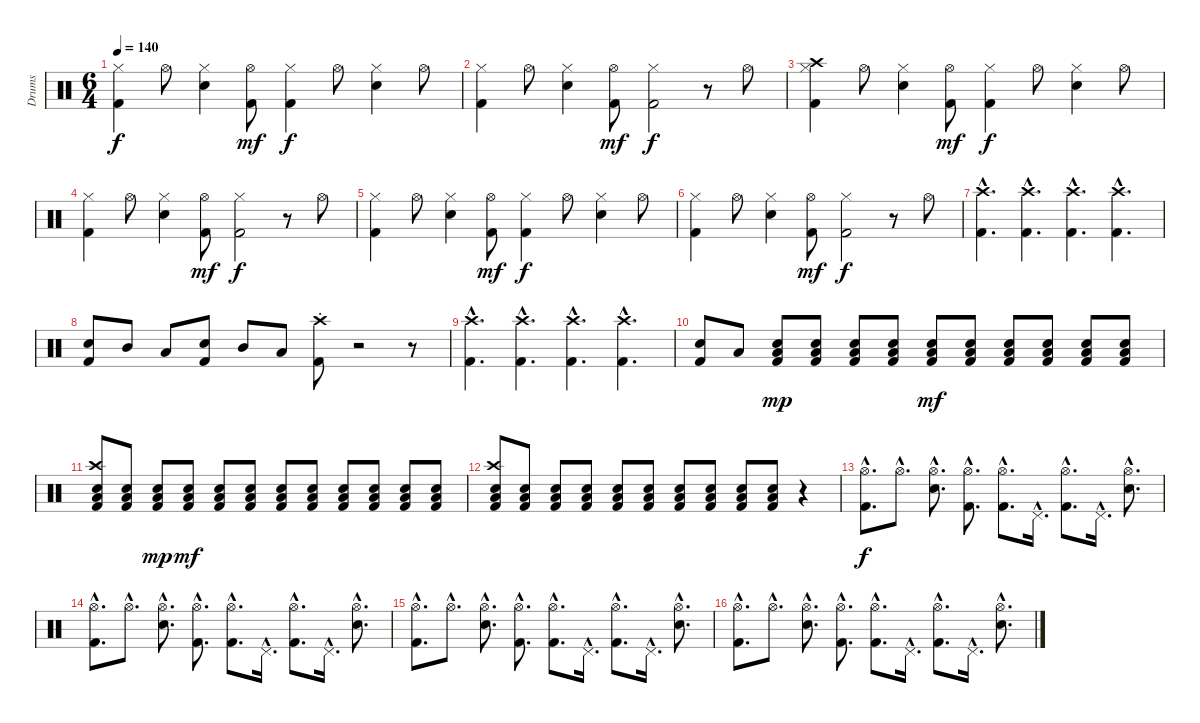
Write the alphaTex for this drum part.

\track ("Drums" "Drums") {instrument percussion}
\staff {score}
\articulation defaults
\ts (6 4)
\tempo 140
\clef neutral
\ks c
("Hi-Hat (closed)" "Kick (hit) 2").4{dy f} "Hi-Hat (open)".8 ("Hi-Hat (closed)" "Snare (hit) 2").4 ("Hi-Hat (open)" "Kick (hit) 2").8{dy mf} ("Hi-Hat (closed)" "Kick (hit) 2").4{dy f} "Hi-Hat (open)".8 ("Hi-Hat (closed)" "Snare (hit) 2").4 "Hi-Hat (open)".8 |
("Hi-Hat (closed)" "Kick (hit) 2").4 "Hi-Hat (open)".8 ("Hi-Hat (closed)" "Snare (hit) 2").4 ("Hi-Hat (open)" "Kick (hit) 2").8{dy mf} ("Hi-Hat (closed)" "Kick (hit) 2").2{dy f} r.8 "Hi-Hat (open)".8 |
("Crash high (hit)" "Hi-Hat (closed)" "Kick (hit) 2").4 "Hi-Hat (open)".8 ("Hi-Hat (closed)" "Snare (hit) 2").4 ("Hi-Hat (open)" "Kick (hit) 2").8{dy mf} ("Hi-Hat (closed)" "Kick (hit) 2").4{dy f} "Hi-Hat (open)".8 ("Hi-Hat (closed)" "Snare (hit) 2").4 "Hi-Hat (open)".8 |
("Hi-Hat (closed)" "Kick (hit) 2").4 "Hi-Hat (open)".8 ("Hi-Hat (closed)" "Snare (hit) 2").4 ("Hi-Hat (open)" "Kick (hit) 2").8{dy mf} ("Hi-Hat (closed)" "Kick (hit) 2").2{dy f} r.8 "Hi-Hat (open)".8 |
("Hi-Hat (closed)" "Kick (hit) 2").4 "Hi-Hat (open)".8 ("Hi-Hat (closed)" "Snare (hit) 2").4 ("Hi-Hat (open)" "Kick (hit) 2").8{dy mf} ("Hi-Hat (closed)" "Kick (hit) 2").4{dy f} "Hi-Hat (open)".8 ("Hi-Hat (closed)" "Snare (hit) 2").4 "Hi-Hat (open)".8 |
("Hi-Hat (closed)" "Kick (hit) 2").4 "Hi-Hat (open)".8 ("Hi-Hat (closed)" "Snare (hit) 2").4 ("Hi-Hat (open)" "Kick (hit) 2").8{dy mf} ("Hi-Hat (closed)" "Kick (hit) 2").2{dy f} r.8 "Hi-Hat (open)".8 |
("Crash high (hit)"{hac} "Kick (hit) 2"{hac}).4{d} ("Crash high (hit)"{hac} "Kick (hit) 2"{hac}).4{d} ("Crash high (hit)"{hac} "Kick (hit) 2"{hac}).4{d} ("Crash high (hit)"{hac} "Kick (hit) 2"{hac}).4{d} |
("Snare (hit) 2" "Kick (hit) 2").8 "Mid Tom (hit)".8 "Low Tom (hit)".8 ("Snare (hit) 2" "Kick (hit) 2").8 "Mid Tom (hit)".8 "Low Tom (hit)".8 ("Crash high (hit)"{st} "Kick (hit) 2").8 r.2 r.8 |
("Crash high (hit)"{hac} "Kick (hit) 2"{hac}).4{d} ("Crash high (hit)"{hac} "Kick (hit) 2"{hac}).4{d} ("Crash high (hit)"{hac} "Kick (hit) 2"{hac}).4{d} ("Crash high (hit)"{hac} "Kick (hit) 2"{hac}).4{d} |
("Snare (hit) 2" "Kick (hit) 2").8 "Low Tom (hit)".8 ("Snare (hit) 2" "Low Floor Tom (hit)" "Kick (hit) 2").8{dy mp} ("Snare (hit) 2" "Low Floor Tom (hit)" "Kick (hit) 2").8 ("Snare (hit) 2" "Low Floor Tom (hit)" "Kick (hit) 2").8 ("Snare (hit) 2" "Low Floor Tom (hit)" "Kick (hit) 2").8 ("Snare (hit) 2" "Low Floor Tom (hit)" "Kick (hit) 2").8{dy mf} ("Snare (hit) 2" "Low Floor Tom (hit)" "Kick (hit) 2").8 ("Snare (hit) 2" "Low Floor Tom (hit)" "Kick (hit) 2").8 ("Snare (hit) 2" "Low Floor Tom (hit)" "Kick (hit) 2").8 ("Snare (hit) 2" "Low Floor Tom (hit)" "Kick (hit) 2").8 ("Snare (hit) 2" "Low Floor Tom (hit)" "Kick (hit) 2").8 |
("Crash high (hit)" "Snare (hit) 2" "Low Floor Tom (hit)" "Kick (hit) 2").8 ("Snare (hit) 2" "Low Floor Tom (hit)" "Kick (hit) 2").8 ("Snare (hit) 2" "Low Floor Tom (hit)" "Kick (hit) 2").8{dy mp} ("Snare (hit) 2" "Low Floor Tom (hit)" "Kick (hit) 2").8{dy mf} ("Snare (hit) 2" "Low Floor Tom (hit)" "Kick (hit) 2").8 ("Snare (hit) 2" "Low Floor Tom (hit)" "Kick (hit) 2").8 ("Snare (hit) 2" "Low Floor Tom (hit)" "Kick (hit) 2").8 ("Snare (hit) 2" "Low Floor Tom (hit)" "Kick (hit) 2").8 ("Snare (hit) 2" "Low Floor Tom (hit)" "Kick (hit) 2").8 ("Snare (hit) 2" "Low Floor Tom (hit)" "Kick (hit) 2").8 ("Snare (hit) 2" "Low Floor Tom (hit)" "Kick (hit) 2").8 ("Snare (hit) 2" "Low Floor Tom (hit)" "Kick (hit) 2").8 |
("Crash high (hit)" "Snare (hit) 2" "Low Floor Tom (hit)" "Kick (hit) 2").8 ("Snare (hit) 2" "Low Floor Tom (hit)" "Kick (hit) 2").8 ("Snare (hit) 2" "Low Floor Tom (hit)" "Kick (hit) 2").8 ("Snare (hit) 2" "Low Floor Tom (hit)" "Kick (hit) 2").8 ("Snare (hit) 2" "Low Floor Tom (hit)" "Kick (hit) 2").8 ("Snare (hit) 2" "Low Floor Tom (hit)" "Kick (hit) 2").8 ("Snare (hit) 2" "Low Floor Tom (hit)" "Kick (hit) 2").8 ("Snare (hit) 2" "Low Floor Tom (hit)" "Kick (hit) 2").8 ("Snare (hit) 2" "Low Floor Tom (hit)" "Kick (hit) 2").8 ("Snare (hit) 2" "Low Floor Tom (hit)" "Kick (hit) 2").8 r.4 |
("Hi-Hat (open)"{hac} "Kick (hit) 2"{hac}).8{d dy f} "Hi-Hat (open)"{hac}.8{d} ("Hi-Hat (open)"{hac} "Snare (hit) 2"{hac}).8{d} ("Hi-Hat (open)"{hac} "Kick (hit) 2"{hac}).8{d} ("Hi-Hat (open)"{hac} "Kick (hit) 2"{hac}).8{d} "Pedal Hi-Hat (hit)"{hac}.16{d} ("Hi-Hat (open)"{hac} "Kick (hit) 2"{hac}).8{d} "Pedal Hi-Hat (hit)"{hac}.16{d} ("Hi-Hat (open)"{hac} "Snare (hit) 2"{hac}).8{d} |
("Hi-Hat (open)"{hac} "Kick (hit) 2"{hac}).8{d} "Hi-Hat (open)"{hac}.8{d} ("Hi-Hat (open)"{hac} "Snare (hit) 2"{hac}).8{d} ("Hi-Hat (open)"{hac} "Kick (hit) 2"{hac}).8{d} ("Hi-Hat (open)"{hac} "Kick (hit) 2"{hac}).8{d} "Pedal Hi-Hat (hit)"{hac}.16{d} ("Hi-Hat (open)"{hac} "Kick (hit) 2"{hac}).8{d} "Pedal Hi-Hat (hit)"{hac}.16{d} ("Hi-Hat (open)"{hac} "Snare (hit) 2"{hac}).8{d} |
("Hi-Hat (open)"{hac} "Kick (hit) 2"{hac}).8{d} "Hi-Hat (open)"{hac}.8{d} ("Hi-Hat (open)"{hac} "Snare (hit) 2"{hac}).8{d} ("Hi-Hat (open)"{hac} "Kick (hit) 2"{hac}).8{d} ("Hi-Hat (open)"{hac} "Kick (hit) 2"{hac}).8{d} "Pedal Hi-Hat (hit)"{hac}.16{d} ("Hi-Hat (open)"{hac} "Kick (hit) 2"{hac}).8{d} "Pedal Hi-Hat (hit)"{hac}.16{d} ("Hi-Hat (open)"{hac} "Snare (hit) 2"{hac}).8{d} |
("Hi-Hat (open)"{hac} "Kick (hit) 2"{hac}).8{d} "Hi-Hat (open)"{hac}.8{d} ("Hi-Hat (open)"{hac} "Snare (hit) 2"{hac}).8{d} ("Hi-Hat (open)"{hac} "Kick (hit) 2"{hac}).8{d} ("Hi-Hat (open)"{hac} "Kick (hit) 2"{hac}).8{d} "Pedal Hi-Hat (hit)"{hac}.16{d} ("Hi-Hat (open)"{hac} "Kick (hit) 2"{hac}).8{d} "Pedal Hi-Hat (hit)"{hac}.16{d} ("Hi-Hat (open)"{hac} "Snare (hit) 2"{hac}).8{d}
